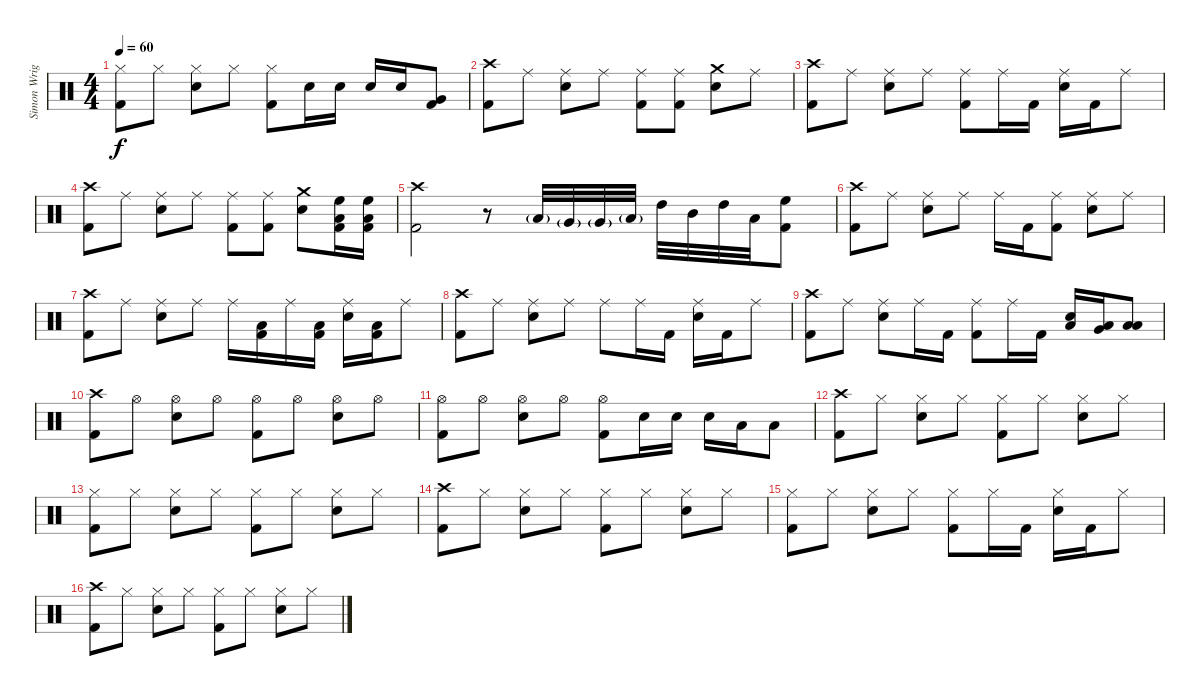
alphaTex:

\track ("Simon Wright" "Simon Wrig") {instrument percussion}
\staff {score}
\articulation defaults
\ts (4 4)
\tempo 60
\clef neutral
\ks c
("Hi-Hat (closed)" "Kick (hit) 2").8{dy f} "Hi-Hat (closed)".8 ("Hi-Hat (closed)" "Snare (hit) 2").8 "Hi-Hat (closed)".8 ("Hi-Hat (closed)" "Kick (hit) 2").8 "Snare (hit) 2".16 "Snare (hit) 2".16 "Snare (hit) 2".16 "Snare (hit) 2".16 ("Very Low Tom (hit)" "Kick (hit) 2").8 |
("Crash high (hit)" "Kick (hit) 2").8 "Ride (middle)".8 ("Ride (middle)" "Snare (hit) 2").8 "Ride (middle)".8 ("Ride (middle)" "Kick (hit) 2").8 ("Ride (middle)" "Kick (hit) 2").8 ("Crash medium (hit)" "Snare (hit) 2").8 "Ride (middle)".8 |
("Crash high (hit)" "Kick (hit) 2").8 "Ride (middle)".8 ("Ride (middle)" "Snare (hit) 2").8 "Ride (middle)".8 ("Ride (middle)" "Kick (hit) 2").8 "Ride (middle)".16 "Kick (hit) 2".16 ("Ride (middle)" "Snare (hit) 2").16 "Kick (hit) 2".16 "Ride (middle)".8 |
("Crash high (hit)" "Kick (hit) 2").8 "Ride (middle)".8 ("Ride (middle)" "Snare (hit) 2").8 "Ride (middle)".8 ("Ride (middle)" "Kick (hit) 2").8 ("Ride (middle)" "Kick (hit) 2").8 ("Crash medium (hit)" "Snare (hit) 2").8 ("High Floor Tom (hit)" "Low Floor Tom (hit)" "Kick (hit) 2").16 ("High Floor Tom (hit)" "Low Floor Tom (hit)" "Kick (hit) 2").16 |
("Crash high (hit)" "Kick (hit) 2").2 r.8 "Low Floor Tom (hit)"{g}.32 "Very Low Tom (hit)"{g}.32 "Very Low Tom (hit)"{g}.32 "Low Tom (hit)"{g}.32 "High Tom (hit)".32 "Mid Tom (hit)".32 "High Tom (hit)".32 "Low Tom (hit)".32 ("High Floor Tom (hit)" "Kick (hit) 2").8 |
("Crash high (hit)" "Kick (hit) 2").8 "Ride (middle)".8 ("Ride (middle)" "Snare (hit) 2").8 "Ride (middle)".8 "Ride (middle)".16 "Kick (hit) 2".16 ("Ride (middle)" "Kick (hit) 2").8 ("Ride (middle)" "Snare (hit) 2").8 "Ride (middle)".8 |
("Crash high (hit)" "Kick (hit) 2").8 "Ride (middle)".8 ("Ride (middle)" "Snare (hit) 2").8 "Ride (middle)".8 "Ride (middle)".16 ("Low Tom (hit)" "Kick (hit) 2").16 "Ride (middle)".16 ("Low Tom (hit)" "Kick (hit) 2").16 ("Ride (middle)" "Snare (hit) 2").16 ("Low Tom (hit)" "Kick (hit) 2").16 "Ride (middle)".8 |
("Crash high (hit)" "Kick (hit) 2").8 "Ride (middle)".8 ("Ride (middle)" "Snare (hit) 2").8 "Ride (middle)".8 "Ride (middle)".8 "Ride (middle)".16 "Kick (hit) 2".16 ("Ride (middle)" "Snare (hit) 2").16 "Kick (hit) 2".16 "Ride (middle)".8 |
("Crash high (hit)" "Kick (hit) 2").8 "Ride (middle)".8 ("Ride (middle)" "Snare (hit) 2").8 "Ride (middle)".16 "Kick (hit) 2".16 ("Ride (middle)" "Kick (hit) 2").8 "Ride (middle)".16 "Kick (hit) 2".16 ("Low Tom (hit)" "Snare (hit) 2").16 ("Low Tom (hit)" "Very Low Tom (hit)").16 ("Low Tom (hit)" "Low Floor Tom (hit)").8 |
("Crash high (hit)" "Kick (hit) 2").8 "Hi-Hat (open)".8 ("Hi-Hat (open)" "Snare (hit) 2").8 "Hi-Hat (open)".8 ("Hi-Hat (open)" "Kick (hit) 2").8 "Hi-Hat (open)".8 ("Hi-Hat (open)" "Snare (hit) 2").8 "Hi-Hat (open)".8 |
("Hi-Hat (open)" "Kick (hit) 2").8 "Hi-Hat (open)".8 ("Hi-Hat (open)" "Snare (hit) 2").8 "Hi-Hat (open)".8 ("Hi-Hat (open)" "Kick (hit) 2").8 "Snare (hit) 2".16 "Snare (hit) 2".16 "Snare (hit) 2".16 "Low Tom (hit)".16 "Low Floor Tom (hit)".8 |
("Crash high (hit)" "Kick (hit) 2").8 "Hi-Hat (closed)".8 ("Hi-Hat (closed)" "Snare (hit) 2").8 "Hi-Hat (closed)".8 ("Hi-Hat (closed)" "Kick (hit) 2").8 "Hi-Hat (closed)".8 ("Hi-Hat (closed)" "Snare (hit) 2").8 "Hi-Hat (closed)".8 |
("Hi-Hat (closed)" "Kick (hit) 2").8 "Hi-Hat (closed)".8 ("Hi-Hat (closed)" "Snare (hit) 2").8 "Hi-Hat (closed)".8 ("Hi-Hat (closed)" "Kick (hit) 2").8 "Hi-Hat (closed)".8 ("Hi-Hat (closed)" "Snare (hit) 2").8 "Hi-Hat (closed)".8 |
("Crash high (hit)" "Kick (hit) 2").8 "Hi-Hat (closed)".8 ("Hi-Hat (closed)" "Snare (hit) 2").8 "Hi-Hat (closed)".8 ("Hi-Hat (closed)" "Kick (hit) 2").8 "Hi-Hat (closed)".8 ("Hi-Hat (closed)" "Snare (hit) 2").8 "Hi-Hat (closed)".8 |
("Hi-Hat (closed)" "Kick (hit) 2").8 "Hi-Hat (closed)".8 ("Hi-Hat (closed)" "Snare (hit) 2").8 "Hi-Hat (closed)".8 ("Hi-Hat (closed)" "Kick (hit) 2").8 "Hi-Hat (closed)".16 "Kick (hit) 2".16 ("Hi-Hat (closed)" "Snare (hit) 2").16 "Kick (hit) 2".16 "Hi-Hat (closed)".8 |
("Crash high (hit)" "Kick (hit) 2").8 "Hi-Hat (closed)".8 ("Hi-Hat (closed)" "Snare (hit) 2").8 "Hi-Hat (closed)".8 ("Hi-Hat (closed)" "Kick (hit) 2").8 "Hi-Hat (closed)".8 ("Hi-Hat (closed)" "Snare (hit) 2").8 "Hi-Hat (closed)".8
